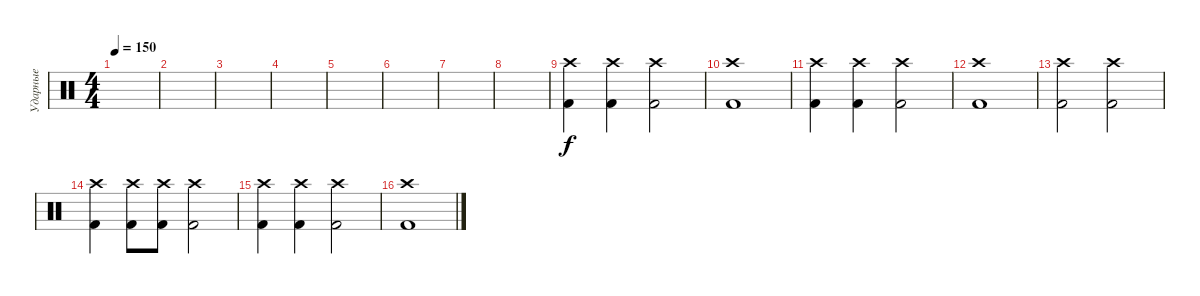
\track ("Ударные" "Ударные") {instrument percussion}
\staff {score}
\articulation defaults
\ts (4 4)
\tempo 150
\clef neutral
\ks c
|
|
|
|
|
|
|
|
("Kick (hit) 2" "Crash high (hit)").4 ("Kick (hit) 2" "Crash high (hit)").4 ("Kick (hit) 2" "Crash high (hit)").2 |
("Kick (hit) 2" "Crash high (hit)").1 |
("Kick (hit) 2" "Crash high (hit)").4 ("Kick (hit) 2" "Crash high (hit)").4 ("Kick (hit) 2" "Crash high (hit)").2 |
("Kick (hit) 2" "Crash high (hit)").1 |
("Kick (hit) 2" "Crash high (hit)").2 ("Kick (hit) 2" "Crash high (hit)").2 |
("Kick (hit) 2" "Crash high (hit)").4 ("Kick (hit) 2" "Crash high (hit)").8 ("Kick (hit) 2" "Crash high (hit)").8 ("Kick (hit) 2" "Crash high (hit)").2 |
("Kick (hit) 2" "Crash high (hit)").4 ("Kick (hit) 2" "Crash high (hit)").4 ("Kick (hit) 2" "Crash high (hit)").2 |
("Kick (hit) 2" "Crash high (hit)").1
